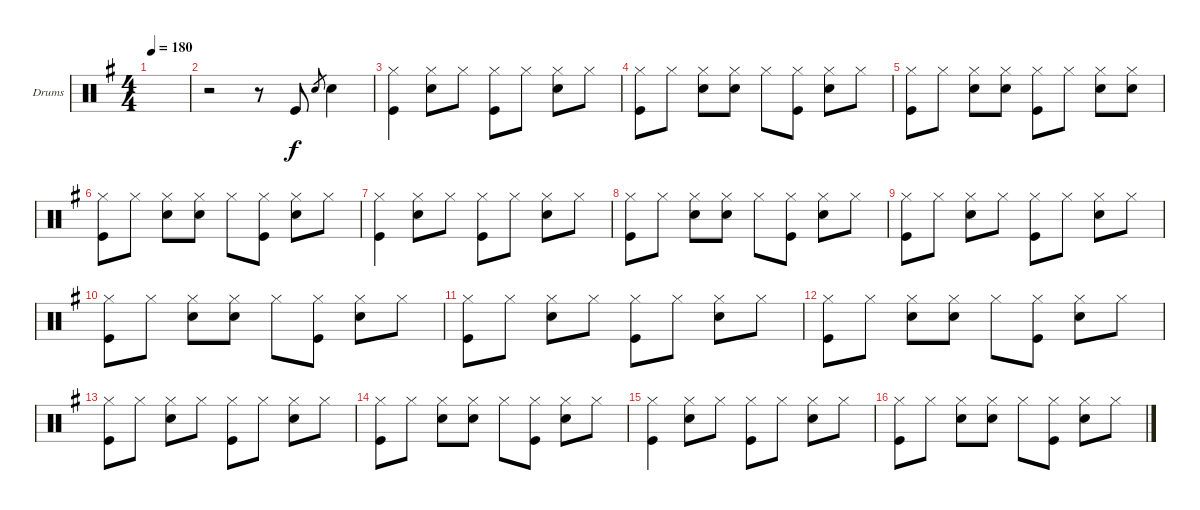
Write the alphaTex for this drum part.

\defaultSystemsLayout 4
\bracketExtendMode groupsimilarinstruments
\firstSystemTrackNameOrientation horizontal
\otherSystemsTrackNameOrientation horizontal
\track ("Drumkit" "Drums") {instrument percussion}
\staff {score}
\articulation defaults
\ts (4 4)
\tempo 180
\clef neutral
\ks g
|
r.2 r.8 "Kick (hit)".8 "Snare (hit) 2".8{gr} "Snare (hit) 2".4 |
("Hi-Hat (closed)" "Kick (hit)").4 ("Hi-Hat (closed)" "Snare (hit) 2").8 "Hi-Hat (closed)".8 ("Kick (hit)" "Hi-Hat (closed)").8 "Hi-Hat (closed)".8 ("Hi-Hat (closed)" "Snare (hit) 2").8 "Hi-Hat (closed)".8 |
("Hi-Hat (closed)" "Kick (hit)").8 "Hi-Hat (closed)".8 ("Hi-Hat (closed)" "Snare (hit) 2").8 ("Snare (hit) 2" "Hi-Hat (closed)").8 "Hi-Hat (closed)".8 ("Hi-Hat (closed)" "Kick (hit)").8 ("Hi-Hat (closed)" "Snare (hit) 2").8 "Hi-Hat (closed)".8 |
("Kick (hit)" "Hi-Hat (closed)").8 "Hi-Hat (closed)".8 ("Hi-Hat (closed)" "Snare (hit) 2").8 ("Snare (hit) 2" "Hi-Hat (closed)").8 ("Hi-Hat (closed)" "Kick (hit)").8 "Hi-Hat (closed)".8 ("Hi-Hat (closed)" "Snare (hit) 2").8 ("Snare (hit) 2" "Hi-Hat (closed)").8 |
("Hi-Hat (closed)" "Kick (hit)").8 "Hi-Hat (closed)".8 ("Hi-Hat (closed)" "Snare (hit) 2").8 ("Snare (hit) 2" "Hi-Hat (closed)").8 "Hi-Hat (closed)".8 ("Hi-Hat (closed)" "Kick (hit)").8 ("Hi-Hat (closed)" "Snare (hit) 2").8 "Hi-Hat (closed)".8 |
("Kick (hit)" "Hi-Hat (closed)").4 ("Hi-Hat (closed)" "Snare (hit) 2").8 "Hi-Hat (closed)".8 ("Hi-Hat (closed)" "Kick (hit)").8 "Hi-Hat (closed)".8 ("Hi-Hat (closed)" "Snare (hit) 2").8 "Hi-Hat (closed)".8 |
("Hi-Hat (closed)" "Kick (hit)").8 "Hi-Hat (closed)".8 ("Hi-Hat (closed)" "Snare (hit) 2").8 ("Snare (hit) 2" "Hi-Hat (closed)").8 "Hi-Hat (closed)".8 ("Hi-Hat (closed)" "Kick (hit)").8 ("Snare (hit) 2" "Hi-Hat (closed)").8 "Hi-Hat (closed)".8 |
("Hi-Hat (closed)" "Kick (hit)").8 "Hi-Hat (closed)".8 ("Hi-Hat (closed)" "Snare (hit) 2").8 "Hi-Hat (closed)".8 ("Hi-Hat (closed)" "Kick (hit)").8 "Hi-Hat (closed)".8 ("Hi-Hat (closed)" "Snare (hit) 2").8 "Hi-Hat (closed)".8 |
("Hi-Hat (closed)" "Kick (hit)").8 "Hi-Hat (closed)".8 ("Hi-Hat (closed)" "Snare (hit) 2").8 ("Snare (hit) 2" "Hi-Hat (closed)").8 "Hi-Hat (closed)".8 ("Hi-Hat (closed)" "Kick (hit)").8 ("Snare (hit) 2" "Hi-Hat (closed)").8 "Hi-Hat (closed)".8 |
("Hi-Hat (closed)" "Kick (hit)").8 "Hi-Hat (closed)".8 ("Hi-Hat (closed)" "Snare (hit) 2").8 "Hi-Hat (closed)".8 ("Hi-Hat (closed)" "Kick (hit)").8 "Hi-Hat (closed)".8 ("Hi-Hat (closed)" "Snare (hit) 2").8 "Hi-Hat (closed)".8 |
("Hi-Hat (closed)" "Kick (hit)").8 "Hi-Hat (closed)".8 ("Hi-Hat (closed)" "Snare (hit) 2").8 ("Snare (hit) 2" "Hi-Hat (closed)").8 "Hi-Hat (closed)".8 ("Hi-Hat (closed)" "Kick (hit)").8 ("Hi-Hat (closed)" "Snare (hit) 2").8 "Hi-Hat (closed)".8 |
("Hi-Hat (closed)" "Kick (hit)").8 "Hi-Hat (closed)".8 ("Hi-Hat (closed)" "Snare (hit) 2").8 "Hi-Hat (closed)".8 ("Hi-Hat (closed)" "Kick (hit)").8 "Hi-Hat (closed)".8 ("Hi-Hat (closed)" "Snare (hit) 2").8 "Hi-Hat (closed)".8 |
("Hi-Hat (closed)" "Kick (hit)").8 "Hi-Hat (closed)".8 ("Hi-Hat (closed)" "Snare (hit) 2").8 ("Snare (hit) 2" "Hi-Hat (closed)").8 "Hi-Hat (closed)".8 ("Hi-Hat (closed)" "Kick (hit)").8 ("Hi-Hat (closed)" "Snare (hit) 2").8 "Hi-Hat (closed)".8 |
("Kick (hit)" "Hi-Hat (closed)").4 ("Hi-Hat (closed)" "Snare (hit) 2").8 "Hi-Hat (closed)".8 ("Hi-Hat (closed)" "Kick (hit)").8 "Hi-Hat (closed)".8 ("Hi-Hat (closed)" "Snare (hit) 2").8 "Hi-Hat (closed)".8 |
("Hi-Hat (closed)" "Kick (hit)").8 "Hi-Hat (closed)".8 ("Hi-Hat (closed)" "Snare (hit) 2").8 ("Snare (hit) 2" "Hi-Hat (closed)").8 "Hi-Hat (closed)".8 ("Hi-Hat (closed)" "Kick (hit)").8 ("Snare (hit) 2" "Hi-Hat (closed)").8 "Hi-Hat (closed)".8
